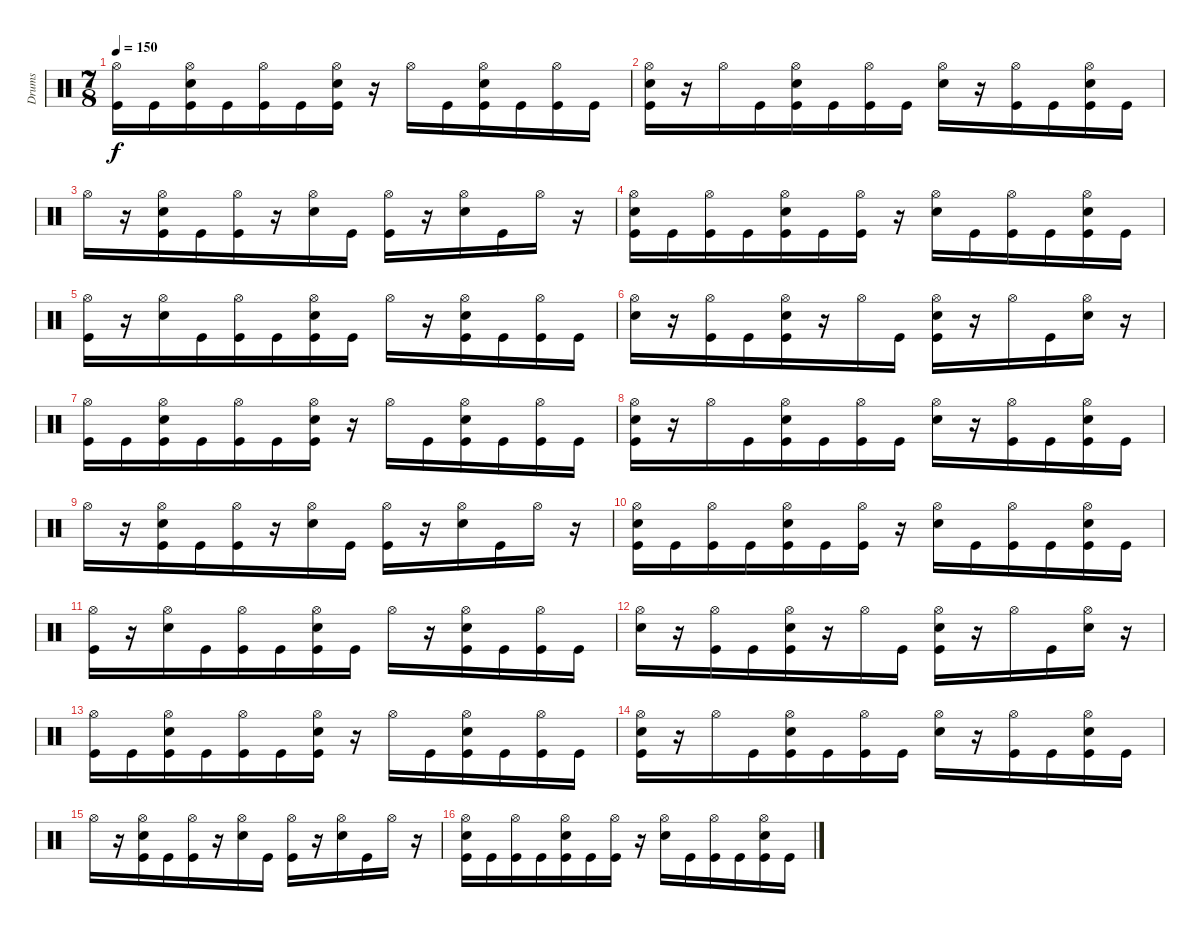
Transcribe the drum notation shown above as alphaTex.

\track ("Drums" "Drums") {instrument percussion}
\staff {score}
\articulation defaults
\ts (7 8)
\tempo 150
\clef neutral
\ks c
("Hi-Hat (open)" "Kick (hit)").16{dy f} "Kick (hit)".16 ("Hi-Hat (open)" "Snare (hit) 2" "Kick (hit)").16 "Kick (hit)".16 ("Hi-Hat (open)" "Kick (hit)").16 "Kick (hit)".16 ("Hi-Hat (open)" "Snare (hit) 2" "Kick (hit)").16 r.16 "Hi-Hat (open)".16 "Kick (hit)".16 ("Hi-Hat (open)" "Snare (hit) 2" "Kick (hit)").16 "Kick (hit)".16 ("Hi-Hat (open)" "Kick (hit)").16 "Kick (hit)".16 |
("Hi-Hat (open)" "Snare (hit) 2" "Kick (hit)").16 r.16 "Hi-Hat (open)".16 "Kick (hit)".16 ("Hi-Hat (open)" "Snare (hit) 2" "Kick (hit)").16 "Kick (hit)".16 ("Hi-Hat (open)" "Kick (hit)").16 "Kick (hit)".16 ("Hi-Hat (open)" "Snare (hit) 2").16 r.16 ("Hi-Hat (open)" "Kick (hit)").16 "Kick (hit)".16 ("Hi-Hat (open)" "Snare (hit) 2" "Kick (hit)").16 "Kick (hit)".16 |
"Hi-Hat (open)".16 r.16 ("Hi-Hat (open)" "Snare (hit) 2" "Kick (hit)").16 "Kick (hit)".16 ("Hi-Hat (open)" "Kick (hit)").16 r.16 ("Hi-Hat (open)" "Snare (hit) 2").16 "Kick (hit)".16 ("Hi-Hat (open)" "Kick (hit)").16 r.16 ("Hi-Hat (open)" "Snare (hit) 2").16 "Kick (hit)".16 "Hi-Hat (open)".16 r.16 |
("Hi-Hat (open)" "Snare (hit) 2" "Kick (hit)").16 "Kick (hit)".16 ("Hi-Hat (open)" "Kick (hit)").16 "Kick (hit)".16 ("Hi-Hat (open)" "Snare (hit) 2" "Kick (hit)").16 "Kick (hit)".16 ("Hi-Hat (open)" "Kick (hit)").16 r.16 ("Hi-Hat (open)" "Snare (hit) 2").16 "Kick (hit)".16 ("Hi-Hat (open)" "Kick (hit)").16 "Kick (hit)".16 ("Hi-Hat (open)" "Snare (hit) 2" "Kick (hit)").16 "Kick (hit)".16 |
("Hi-Hat (open)" "Kick (hit)").16 r.16 ("Hi-Hat (open)" "Snare (hit) 2").16 "Kick (hit)".16 ("Hi-Hat (open)" "Kick (hit)").16 "Kick (hit)".16 ("Hi-Hat (open)" "Snare (hit) 2" "Kick (hit)").16 "Kick (hit)".16 "Hi-Hat (open)".16 r.16 ("Hi-Hat (open)" "Snare (hit) 2" "Kick (hit)").16 "Kick (hit)".16 ("Hi-Hat (open)" "Kick (hit)").16 "Kick (hit)".16 |
("Hi-Hat (open)" "Snare (hit) 2").16 r.16 ("Hi-Hat (open)" "Kick (hit)").16 "Kick (hit)".16 ("Hi-Hat (open)" "Snare (hit) 2" "Kick (hit)").16 r.16 "Hi-Hat (open)".16 "Kick (hit)".16 ("Hi-Hat (open)" "Snare (hit) 2" "Kick (hit)").16 r.16 "Hi-Hat (open)".16 "Kick (hit)".16 ("Hi-Hat (open)" "Snare (hit) 2").16 r.16 |
("Hi-Hat (open)" "Kick (hit)").16 "Kick (hit)".16 ("Hi-Hat (open)" "Snare (hit) 2" "Kick (hit)").16 "Kick (hit)".16 ("Hi-Hat (open)" "Kick (hit)").16 "Kick (hit)".16 ("Hi-Hat (open)" "Snare (hit) 2" "Kick (hit)").16 r.16 "Hi-Hat (open)".16 "Kick (hit)".16 ("Hi-Hat (open)" "Snare (hit) 2" "Kick (hit)").16 "Kick (hit)".16 ("Hi-Hat (open)" "Kick (hit)").16 "Kick (hit)".16 |
("Hi-Hat (open)" "Snare (hit) 2" "Kick (hit)").16 r.16 "Hi-Hat (open)".16 "Kick (hit)".16 ("Hi-Hat (open)" "Snare (hit) 2" "Kick (hit)").16 "Kick (hit)".16 ("Hi-Hat (open)" "Kick (hit)").16 "Kick (hit)".16 ("Hi-Hat (open)" "Snare (hit) 2").16 r.16 ("Hi-Hat (open)" "Kick (hit)").16 "Kick (hit)".16 ("Hi-Hat (open)" "Snare (hit) 2" "Kick (hit)").16 "Kick (hit)".16 |
"Hi-Hat (open)".16 r.16 ("Hi-Hat (open)" "Snare (hit) 2" "Kick (hit)").16 "Kick (hit)".16 ("Hi-Hat (open)" "Kick (hit)").16 r.16 ("Hi-Hat (open)" "Snare (hit) 2").16 "Kick (hit)".16 ("Hi-Hat (open)" "Kick (hit)").16 r.16 ("Hi-Hat (open)" "Snare (hit) 2").16 "Kick (hit)".16 "Hi-Hat (open)".16 r.16 |
("Hi-Hat (open)" "Snare (hit) 2" "Kick (hit)").16 "Kick (hit)".16 ("Hi-Hat (open)" "Kick (hit)").16 "Kick (hit)".16 ("Hi-Hat (open)" "Snare (hit) 2" "Kick (hit)").16 "Kick (hit)".16 ("Hi-Hat (open)" "Kick (hit)").16 r.16 ("Hi-Hat (open)" "Snare (hit) 2").16 "Kick (hit)".16 ("Hi-Hat (open)" "Kick (hit)").16 "Kick (hit)".16 ("Hi-Hat (open)" "Snare (hit) 2" "Kick (hit)").16 "Kick (hit)".16 |
("Hi-Hat (open)" "Kick (hit)").16 r.16 ("Hi-Hat (open)" "Snare (hit) 2").16 "Kick (hit)".16 ("Hi-Hat (open)" "Kick (hit)").16 "Kick (hit)".16 ("Hi-Hat (open)" "Snare (hit) 2" "Kick (hit)").16 "Kick (hit)".16 "Hi-Hat (open)".16 r.16 ("Hi-Hat (open)" "Snare (hit) 2" "Kick (hit)").16 "Kick (hit)".16 ("Hi-Hat (open)" "Kick (hit)").16 "Kick (hit)".16 |
("Hi-Hat (open)" "Snare (hit) 2").16 r.16 ("Hi-Hat (open)" "Kick (hit)").16 "Kick (hit)".16 ("Hi-Hat (open)" "Snare (hit) 2" "Kick (hit)").16 r.16 "Hi-Hat (open)".16 "Kick (hit)".16 ("Hi-Hat (open)" "Snare (hit) 2" "Kick (hit)").16 r.16 "Hi-Hat (open)".16 "Kick (hit)".16 ("Hi-Hat (open)" "Snare (hit) 2").16 r.16 |
("Hi-Hat (open)" "Kick (hit)").16 "Kick (hit)".16 ("Hi-Hat (open)" "Snare (hit) 2" "Kick (hit)").16 "Kick (hit)".16 ("Hi-Hat (open)" "Kick (hit)").16 "Kick (hit)".16 ("Hi-Hat (open)" "Snare (hit) 2" "Kick (hit)").16 r.16 "Hi-Hat (open)".16 "Kick (hit)".16 ("Hi-Hat (open)" "Snare (hit) 2" "Kick (hit)").16 "Kick (hit)".16 ("Hi-Hat (open)" "Kick (hit)").16 "Kick (hit)".16 |
("Hi-Hat (open)" "Snare (hit) 2" "Kick (hit)").16 r.16 "Hi-Hat (open)".16 "Kick (hit)".16 ("Hi-Hat (open)" "Snare (hit) 2" "Kick (hit)").16 "Kick (hit)".16 ("Hi-Hat (open)" "Kick (hit)").16 "Kick (hit)".16 ("Hi-Hat (open)" "Snare (hit) 2").16 r.16 ("Hi-Hat (open)" "Kick (hit)").16 "Kick (hit)".16 ("Hi-Hat (open)" "Snare (hit) 2" "Kick (hit)").16 "Kick (hit)".16 |
"Hi-Hat (open)".16 r.16 ("Hi-Hat (open)" "Snare (hit) 2" "Kick (hit)").16 "Kick (hit)".16 ("Hi-Hat (open)" "Kick (hit)").16 r.16 ("Hi-Hat (open)" "Snare (hit) 2").16 "Kick (hit)".16 ("Hi-Hat (open)" "Kick (hit)").16 r.16 ("Hi-Hat (open)" "Snare (hit) 2").16 "Kick (hit)".16 "Hi-Hat (open)".16 r.16 |
("Hi-Hat (open)" "Snare (hit) 2" "Kick (hit)").16 "Kick (hit)".16 ("Hi-Hat (open)" "Kick (hit)").16 "Kick (hit)".16 ("Hi-Hat (open)" "Snare (hit) 2" "Kick (hit)").16 "Kick (hit)".16 ("Hi-Hat (open)" "Kick (hit)").16 r.16 ("Hi-Hat (open)" "Snare (hit) 2").16 "Kick (hit)".16 ("Hi-Hat (open)" "Kick (hit)").16 "Kick (hit)".16 ("Hi-Hat (open)" "Snare (hit) 2" "Kick (hit)").16 "Kick (hit)".16
